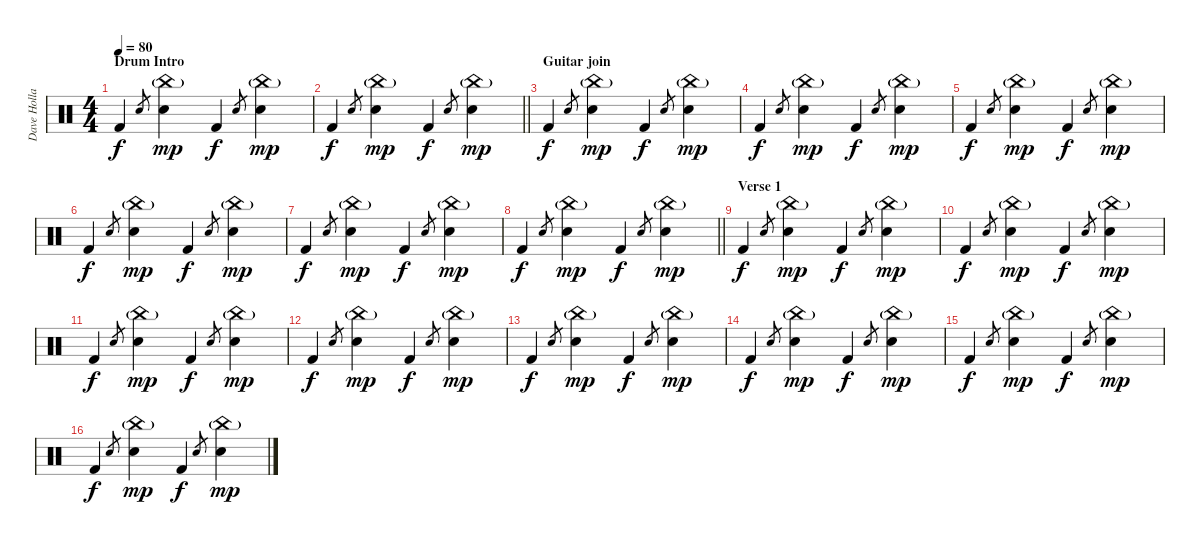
\track ("Dave Holland" "Dave Holla") {instrument percussion}
\staff {score}
\articulation defaults
\ts (4 4)
\section ("" "Drum Intro")
\tempo 80
\clef neutral
\ks c "Kick (hit) 2".4{dy f} "Snare (hit) 2".8{gr}
("Snare (hit) 2" "China (hit)"{g}).4{dy mp} "Kick (hit) 2".4{dy f} "Snare (hit) 2".8{gr} ("Snare (hit) 2" "China (hit)"{g}).4{dy mp} |
\barLineRight lightlight "Kick (hit) 2".4{dy f} "Snare (hit) 2".8{gr}
("Snare (hit) 2" "China (hit)"{g}).4{dy mp} "Kick (hit) 2".4{dy f} "Snare (hit) 2".8{gr} ("Snare (hit) 2" "China (hit)"{g}).4{dy mp} |
\section ("" "Guitar join")
"Kick (hit) 2".4{dy f} "Snare (hit) 2".8{gr} ("Snare (hit) 2" "China (hit)"{g}).4{dy mp} "Kick (hit) 2".4{dy f} "Snare (hit) 2".8{gr} ("Snare (hit) 2" "China (hit)"{g}).4{dy mp} |
"Kick (hit) 2".4{dy f} "Snare (hit) 2".8{gr} ("Snare (hit) 2" "China (hit)"{g}).4{dy mp} "Kick (hit) 2".4{dy f} "Snare (hit) 2".8{gr} ("Snare (hit) 2" "China (hit)"{g}).4{dy mp} |
"Kick (hit) 2".4{dy f} "Snare (hit) 2".8{gr} ("Snare (hit) 2" "China (hit)"{g}).4{dy mp} "Kick (hit) 2".4{dy f} "Snare (hit) 2".8{gr} ("Snare (hit) 2" "China (hit)"{g}).4{dy mp} |
"Kick (hit) 2".4{dy f} "Snare (hit) 2".8{gr} ("Snare (hit) 2" "China (hit)"{g}).4{dy mp} "Kick (hit) 2".4{dy f} "Snare (hit) 2".8{gr} ("Snare (hit) 2" "China (hit)"{g}).4{dy mp} |
"Kick (hit) 2".4{dy f} "Snare (hit) 2".8{gr} ("Snare (hit) 2" "China (hit)"{g}).4{dy mp} "Kick (hit) 2".4{dy f} "Snare (hit) 2".8{gr} ("Snare (hit) 2" "China (hit)"{g}).4{dy mp} |
\barLineRight lightlight "Kick (hit) 2".4{dy f} "Snare (hit) 2".8{gr}
("Snare (hit) 2" "China (hit)"{g}).4{dy mp} "Kick (hit) 2".4{dy f} "Snare (hit) 2".8{gr} ("Snare (hit) 2" "China (hit)"{g}).4{dy mp} |
\section ("" "Verse 1")
"Kick (hit) 2".4{dy f} "Snare (hit) 2".8{gr} ("Snare (hit) 2" "China (hit)"{g}).4{dy mp} "Kick (hit) 2".4{dy f} "Snare (hit) 2".8{gr} ("Snare (hit) 2" "China (hit)"{g}).4{dy mp} |
"Kick (hit) 2".4{dy f} "Snare (hit) 2".8{gr} ("Snare (hit) 2" "China (hit)"{g}).4{dy mp} "Kick (hit) 2".4{dy f} "Snare (hit) 2".8{gr} ("Snare (hit) 2" "China (hit)"{g}).4{dy mp} |
"Kick (hit) 2".4{dy f} "Snare (hit) 2".8{gr} ("Snare (hit) 2" "China (hit)"{g}).4{dy mp} "Kick (hit) 2".4{dy f} "Snare (hit) 2".8{gr} ("Snare (hit) 2" "China (hit)"{g}).4{dy mp} |
"Kick (hit) 2".4{dy f} "Snare (hit) 2".8{gr} ("Snare (hit) 2" "China (hit)"{g}).4{dy mp} "Kick (hit) 2".4{dy f} "Snare (hit) 2".8{gr} ("Snare (hit) 2" "China (hit)"{g}).4{dy mp} |
"Kick (hit) 2".4{dy f} "Snare (hit) 2".8{gr} ("Snare (hit) 2" "China (hit)"{g}).4{dy mp} "Kick (hit) 2".4{dy f} "Snare (hit) 2".8{gr} ("Snare (hit) 2" "China (hit)"{g}).4{dy mp} |
"Kick (hit) 2".4{dy f} "Snare (hit) 2".8{gr} ("Snare (hit) 2" "China (hit)"{g}).4{dy mp} "Kick (hit) 2".4{dy f} "Snare (hit) 2".8{gr} ("Snare (hit) 2" "China (hit)"{g}).4{dy mp} |
"Kick (hit) 2".4{dy f} "Snare (hit) 2".8{gr} ("Snare (hit) 2" "China (hit)"{g}).4{dy mp} "Kick (hit) 2".4{dy f} "Snare (hit) 2".8{gr} ("Snare (hit) 2" "China (hit)"{g}).4{dy mp} |
"Kick (hit) 2".4{dy f} "Snare (hit) 2".8{gr} ("Snare (hit) 2" "China (hit)"{g}).4{dy mp} "Kick (hit) 2".4{dy f} "Snare (hit) 2".8{gr} ("Snare (hit) 2" "China (hit)"{g}).4{dy mp}
